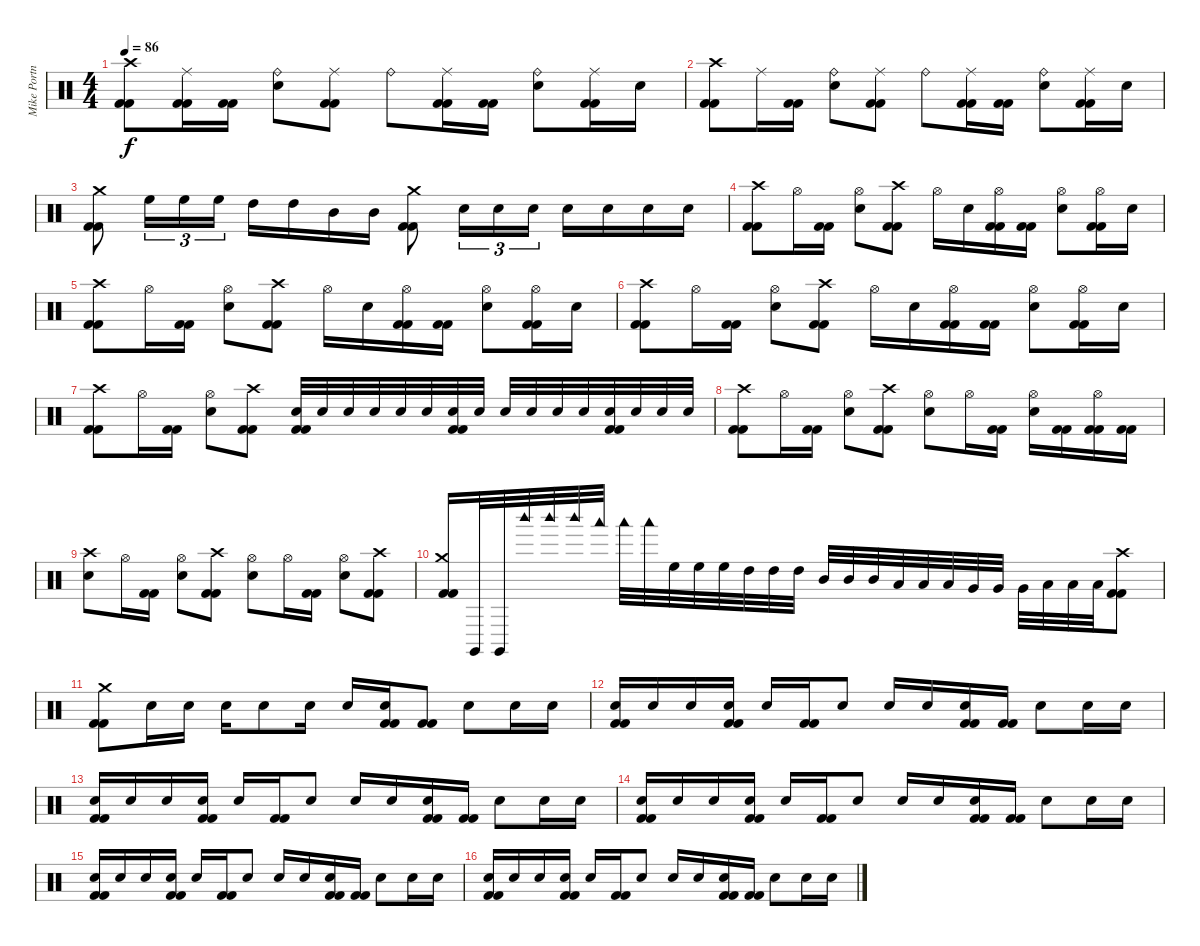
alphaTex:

\track ("Mike Portnoy - Drum" "Mike Portn") {instrument percussion}
\staff {score}
\articulation defaults
\ts (4 4)
\tempo 86
\clef neutral
\ks c
("Crash high (hit)" "Kick (hit) 2" "Kick (hit) 2").8{dy f} ("Ride (middle)" "Kick (hit) 2" "Kick (hit) 2").16 ("Kick (hit) 2" "Kick (hit) 2").16 ("Ride (bell)" "Snare (hit) 2").8 ("Ride (middle)" "Kick (hit) 2" "Kick (hit) 2").8 "Ride (bell)".8 ("Ride (middle)" "Kick (hit) 2" "Kick (hit) 2").16 ("Kick (hit) 2" "Kick (hit) 2").16 ("Ride (bell)" "Snare (hit) 2").8 ("Ride (middle)" "Kick (hit) 2" "Kick (hit) 2").16 "Snare (hit) 2".16 |
("Crash high (hit)" "Kick (hit) 2" "Kick (hit) 2").8 "Ride (middle)".16 ("Kick (hit) 2" "Kick (hit) 2").16 ("Ride (bell)" "Snare (hit) 2").8 ("Ride (middle)" "Kick (hit) 2" "Kick (hit) 2").8 "Ride (bell)".8 ("Ride (middle)" "Kick (hit) 2" "Kick (hit) 2").16 ("Kick (hit) 2" "Kick (hit) 2").16 ("Ride (bell)" "Snare (hit) 2").8 ("Ride (middle)" "Kick (hit) 2" "Kick (hit) 2").16 "Snare (hit) 2".16 |
("Crash medium (hit)" "Kick (hit) 2" "Kick (hit) 2").8 "High Floor Tom (hit)".16{tu (3 2)} "High Floor Tom (hit)".16{tu (3 2)} "High Floor Tom (hit)".16{tu (3 2)} "High Tom (hit)".16 "High Tom (hit)".16 "Mid Tom (hit)".16 "Mid Tom (hit)".16 ("Crash medium (hit)" "Kick (hit) 2" "Kick (hit) 2").8 "Snare (hit) 2".16{tu (3 2)} "Snare (hit) 2".16{tu (3 2)} "Snare (hit) 2".16{tu (3 2)} "Snare (hit) 2".16 "Snare (hit) 2".16 "Snare (hit) 2".16 "Snare (hit) 2".16 |
("Crash high (hit)" "Kick (hit) 2" "Kick (hit) 2").8 "Hi-Hat (open)".16 ("Kick (hit) 2" "Kick (hit) 2").16 ("Hi-Hat (open)" "Snare (hit) 2").8 ("Crash high (hit)" "Kick (hit) 2" "Kick (hit) 2").8 "Hi-Hat (open)".16 "Snare (hit) 2".16 ("Hi-Hat (open)" "Kick (hit) 2" "Kick (hit) 2").16 ("Kick (hit) 2" "Kick (hit) 2").16 ("Hi-Hat (open)" "Snare (hit) 2").8 ("Hi-Hat (open)" "Kick (hit) 2" "Kick (hit) 2").16 "Snare (hit) 2".16 |
("Crash high (hit)" "Kick (hit) 2" "Kick (hit) 2").8 "Hi-Hat (open)".16 ("Kick (hit) 2" "Kick (hit) 2").16 ("Hi-Hat (open)" "Snare (hit) 2").8 ("Crash high (hit)" "Kick (hit) 2" "Kick (hit) 2").8 "Hi-Hat (open)".16 "Snare (hit) 2".16 ("Hi-Hat (open)" "Kick (hit) 2" "Kick (hit) 2").16 ("Kick (hit) 2" "Kick (hit) 2").16 ("Hi-Hat (open)" "Snare (hit) 2").8 ("Hi-Hat (open)" "Kick (hit) 2" "Kick (hit) 2").16 "Snare (hit) 2".16 |
("Crash high (hit)" "Kick (hit) 2" "Kick (hit) 2").8 "Hi-Hat (open)".16 ("Kick (hit) 2" "Kick (hit) 2").16 ("Hi-Hat (open)" "Snare (hit) 2").8 ("Crash high (hit)" "Kick (hit) 2" "Kick (hit) 2").8 "Hi-Hat (open)".16 "Snare (hit) 2".16 ("Hi-Hat (open)" "Kick (hit) 2" "Kick (hit) 2").16 ("Kick (hit) 2" "Kick (hit) 2").16 ("Hi-Hat (open)" "Snare (hit) 2").8 ("Hi-Hat (open)" "Kick (hit) 2" "Kick (hit) 2").16 "Snare (hit) 2".16 |
("Crash high (hit)" "Kick (hit) 2" "Kick (hit) 2").8 "Hi-Hat (open)".16 ("Kick (hit) 2" "Kick (hit) 2").16 ("Hi-Hat (open)" "Snare (hit) 2").8 ("Crash high (hit)" "Kick (hit) 2" "Kick (hit) 2").8 ("Snare (hit) 2" "Kick (hit) 2" "Kick (hit) 2").32 "Snare (hit) 2".32 "Snare (hit) 2".32 "Snare (hit) 2".32 "Snare (hit) 2".32 "Snare (hit) 2".32 ("Snare (hit) 2" "Kick (hit) 2" "Kick (hit) 2").32 "Snare (hit) 2".32 "Snare (hit) 2".32 "Snare (hit) 2".32 "Snare (hit) 2".32 "Snare (hit) 2".32 ("Snare (hit) 2" "Kick (hit) 2" "Kick (hit) 2").32 "Snare (hit) 2".32 "Snare (hit) 2".32 "Snare (hit) 2".32 |
("Crash high (hit)" "Kick (hit) 2" "Kick (hit) 2").8 "Hi-Hat (open)".16 ("Kick (hit) 2" "Kick (hit) 2").16 ("Hi-Hat (open)" "Snare (hit) 2").8 ("Crash high (hit)" "Kick (hit) 2" "Kick (hit) 2").8 ("Hi-Hat (open)" "Snare (hit) 2").8 "Hi-Hat (open)".16 ("Kick (hit) 2" "Kick (hit) 2").16 ("Hi-Hat (open)" "Snare (hit) 2").16 ("Kick (hit) 2" "Kick (hit) 2").16 ("Hi-Hat (open)" "Kick (hit) 2" "Kick (hit) 2").16 ("Kick (hit) 2" "Kick (hit) 2").16 |
("Crash high (hit)" "Snare (hit) 2").8 "Hi-Hat (open)".16 ("Kick (hit) 2" "Kick (hit) 2").16 ("Hi-Hat (open)" "Snare (hit) 2").8 ("Crash high (hit)" "Kick (hit) 2" "Kick (hit) 2").8 ("Hi-Hat (open)" "Snare (hit) 2").8 "Hi-Hat (open)".16 ("Kick (hit) 2" "Kick (hit) 2").16 ("Hi-Hat (open)" "Snare (hit) 2").8 ("Crash high (hit)" "Kick (hit) 2" "Kick (hit) 2").8 |
("Crash medium (hit)" "Kick (hit) 2" "Kick (hit) 2").16 "Claves (hit)".32 "Claves (hit)".32 "Woodblock high (hit)".32 "Woodblock high (hit)".32 "Woodblock high (hit)".32 "Woodblock low (hit)".32 "Woodblock low (hit)".32 "Woodblock low (hit)".32 "High Floor Tom (hit)".32 "High Floor Tom (hit)".32 "High Floor Tom (hit)".32 "High Tom (hit)".32 "High Tom (hit)".32 "High Tom (hit)".32 "Mid Tom (hit)".32 "Mid Tom (hit)".32 "Mid Tom (hit)".32 "Low Tom (hit)".32 "Low Tom (hit)".32 "Low Tom (hit)".32 "Very Low Tom (hit)".32 "Very Low Tom (hit)".32 "Very Low Tom (hit)".32 "Low Floor Tom (hit)".32 "Low Floor Tom (hit)".32 "Low Floor Tom (hit)".32 ("Crash high (hit)" "Kick (hit) 2" "Kick (hit) 2").8 |
("Crash medium (hit)" "Kick (hit) 2" "Kick (hit) 2").8 "Snare (hit) 2".16 "Snare (hit) 2".16 "Snare (hit) 2".16 "Snare (hit) 2".8 "Snare (hit) 2".16 "Snare (hit) 2".16 ("Snare (hit) 2" "Kick (hit) 2" "Kick (hit) 2").16 ("Kick (hit) 2" "Kick (hit) 2").8 "Snare (hit) 2".8 "Snare (hit) 2".16 "Snare (hit) 2".16 |
("Snare (hit) 2" "Kick (hit) 2" "Kick (hit) 2").16 "Snare (hit) 2".16 "Snare (hit) 2".16 ("Snare (hit) 2" "Kick (hit) 2" "Kick (hit) 2").16 "Snare (hit) 2".16 ("Kick (hit) 2" "Kick (hit) 2").16 "Snare (hit) 2".8 "Snare (hit) 2".16 "Snare (hit) 2".16 ("Snare (hit) 2" "Kick (hit) 2" "Kick (hit) 2").16 ("Kick (hit) 2" "Kick (hit) 2").16 "Snare (hit) 2".8 "Snare (hit) 2".16 "Snare (hit) 2".16 |
("Snare (hit) 2" "Kick (hit) 2" "Kick (hit) 2").16 "Snare (hit) 2".16 "Snare (hit) 2".16 ("Snare (hit) 2" "Kick (hit) 2" "Kick (hit) 2").16 "Snare (hit) 2".16 ("Kick (hit) 2" "Kick (hit) 2").16 "Snare (hit) 2".8 "Snare (hit) 2".16 "Snare (hit) 2".16 ("Snare (hit) 2" "Kick (hit) 2" "Kick (hit) 2").16 ("Kick (hit) 2" "Kick (hit) 2").16 "Snare (hit) 2".8 "Snare (hit) 2".16 "Snare (hit) 2".16 |
("Snare (hit) 2" "Kick (hit) 2" "Kick (hit) 2").16 "Snare (hit) 2".16 "Snare (hit) 2".16 ("Snare (hit) 2" "Kick (hit) 2" "Kick (hit) 2").16 "Snare (hit) 2".16 ("Kick (hit) 2" "Kick (hit) 2").16 "Snare (hit) 2".8 "Snare (hit) 2".16 "Snare (hit) 2".16 ("Snare (hit) 2" "Kick (hit) 2" "Kick (hit) 2").16 ("Kick (hit) 2" "Kick (hit) 2").16 "Snare (hit) 2".8 "Snare (hit) 2".16 "Snare (hit) 2".16 |
("Snare (hit) 2" "Kick (hit) 2" "Kick (hit) 2").16 "Snare (hit) 2".16 "Snare (hit) 2".16 ("Snare (hit) 2" "Kick (hit) 2" "Kick (hit) 2").16 "Snare (hit) 2".16 ("Kick (hit) 2" "Kick (hit) 2").16 "Snare (hit) 2".8 "Snare (hit) 2".16 "Snare (hit) 2".16 ("Snare (hit) 2" "Kick (hit) 2" "Kick (hit) 2").16 ("Kick (hit) 2" "Kick (hit) 2").16 "Snare (hit) 2".8 "Snare (hit) 2".16 "Snare (hit) 2".16 |
("Snare (hit) 2" "Kick (hit) 2" "Kick (hit) 2").16 "Snare (hit) 2".16 "Snare (hit) 2".16 ("Snare (hit) 2" "Kick (hit) 2" "Kick (hit) 2").16 "Snare (hit) 2".16 ("Kick (hit) 2" "Kick (hit) 2").16 "Snare (hit) 2".8 "Snare (hit) 2".16 "Snare (hit) 2".16 ("Snare (hit) 2" "Kick (hit) 2" "Kick (hit) 2").16 ("Kick (hit) 2" "Kick (hit) 2").16 "Snare (hit) 2".8 "Snare (hit) 2".16 "Snare (hit) 2".16
